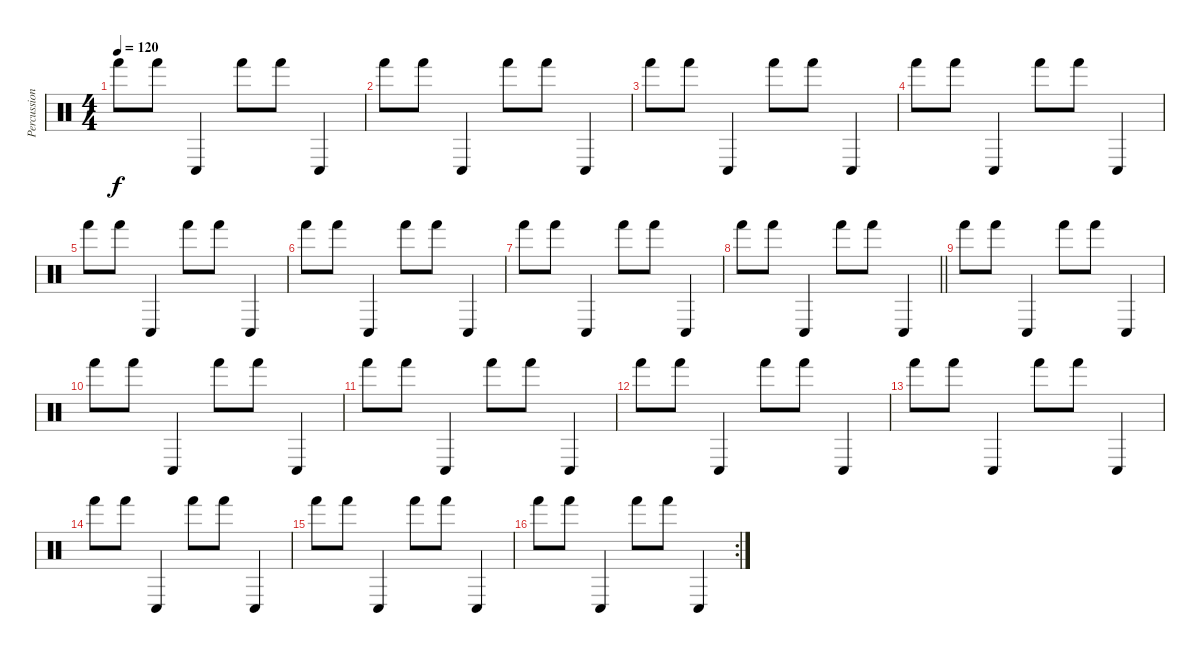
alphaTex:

\track ("Percussions" "Percussion") {instrument percussion}
\staff {score}
\articulation defaults
\ts (4 4)
\tempo 120
\clef neutral
\ks c "Hand (hit)".8{dy f} "Hand (hit)".8 "Conga low (hit)".4 "Hand (hit)".8 "Hand (hit)".8 "Conga low (hit)".4
|
"Hand (hit)".8 "Hand (hit)".8 "Conga low (hit)".4 "Hand (hit)".8 "Hand (hit)".8 "Conga low (hit)".4 |
"Hand (hit)".8 "Hand (hit)".8 "Conga low (hit)".4 "Hand (hit)".8 "Hand (hit)".8 "Conga low (hit)".4 |
"Hand (hit)".8 "Hand (hit)".8 "Conga low (hit)".4 "Hand (hit)".8 "Hand (hit)".8 "Conga low (hit)".4 |
"Hand (hit)".8 "Hand (hit)".8 "Conga low (hit)".4 "Hand (hit)".8 "Hand (hit)".8 "Conga low (hit)".4 |
"Hand (hit)".8 "Hand (hit)".8 "Conga low (hit)".4 "Hand (hit)".8 "Hand (hit)".8 "Conga low (hit)".4 |
"Hand (hit)".8 "Hand (hit)".8 "Conga low (hit)".4 "Hand (hit)".8 "Hand (hit)".8 "Conga low (hit)".4 |
\barLineRight lightlight "Hand (hit)".8 "Hand (hit)".8 "Conga low (hit)".4 "Hand (hit)".8 "Hand (hit)".8 "Conga low (hit)".4
|
"Hand (hit)".8 "Hand (hit)".8 "Conga low (hit)".4 "Hand (hit)".8 "Hand (hit)".8 "Conga low (hit)".4 |
"Hand (hit)".8 "Hand (hit)".8 "Conga low (hit)".4 "Hand (hit)".8 "Hand (hit)".8 "Conga low (hit)".4 |
"Hand (hit)".8 "Hand (hit)".8 "Conga low (hit)".4 "Hand (hit)".8 "Hand (hit)".8 "Conga low (hit)".4 |
"Hand (hit)".8 "Hand (hit)".8 "Conga low (hit)".4 "Hand (hit)".8 "Hand (hit)".8 "Conga low (hit)".4 |
"Hand (hit)".8 "Hand (hit)".8 "Conga low (hit)".4 "Hand (hit)".8 "Hand (hit)".8 "Conga low (hit)".4 |
"Hand (hit)".8 "Hand (hit)".8 "Conga low (hit)".4 "Hand (hit)".8 "Hand (hit)".8 "Conga low (hit)".4 |
"Hand (hit)".8 "Hand (hit)".8 "Conga low (hit)".4 "Hand (hit)".8 "Hand (hit)".8 "Conga low (hit)".4 |
\rc 2 "Hand (hit)".8 "Hand (hit)".8 "Conga low (hit)".4 "Hand (hit)".8 "Hand (hit)".8 "Conga low (hit)".4
